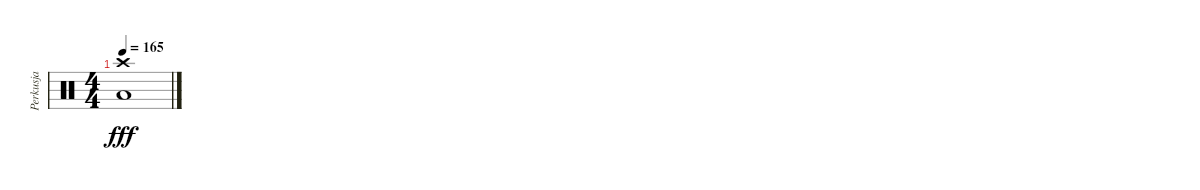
\track ("Perkusja" "Perkusja") {instrument percussion}
\staff {score}
\articulation defaults
\ts (4 4)
\tempo 165
\clef neutral
\ks c
("Crash high (hit)" "Low Tom (hit)").1{dy fff}
